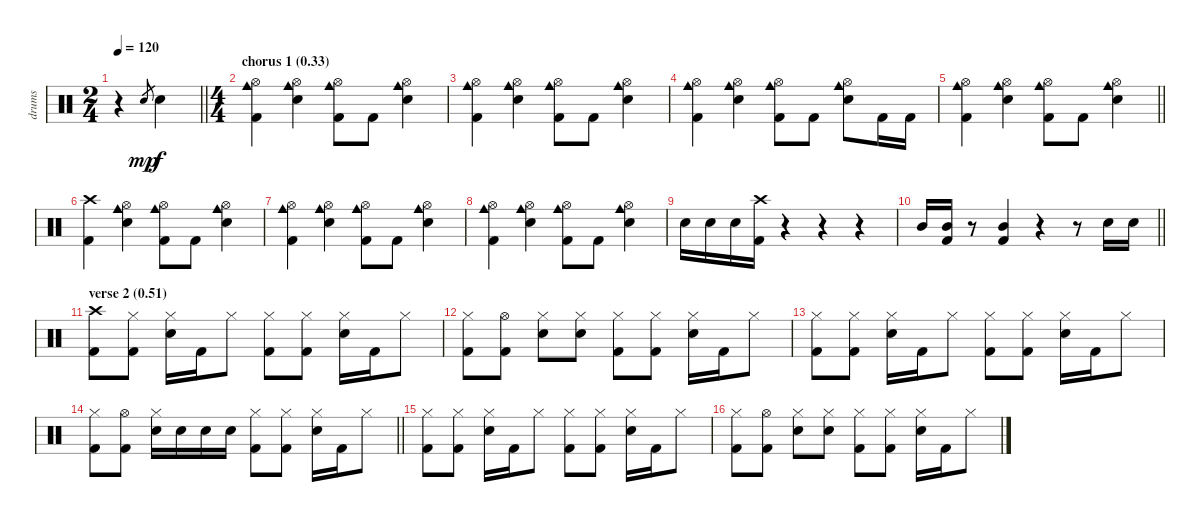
\track ("drums" "drums") {instrument percussion}
\staff {score}
\articulation defaults
\ts (2 4)
\tempo 120
\clef neutral
\barLineRight lightlight
\ks c
r.4{dy f} "Electric Snare (hit)".8{gr dy mp} "Electric Snare (hit)".4{dy f} |
\ts (4 4)
\section ("" "chorus 1 (0.33)")
("Hi-Hat (open)" "Cowbell medium (hit)" "Kick (hit) 2").4 ("Hi-Hat (open)" "Cowbell medium (hit)" "Electric Snare (hit)").4 ("Hi-Hat (open)" "Cowbell medium (hit)" "Kick (hit) 2").8 "Kick (hit) 2".8 ("Hi-Hat (open)" "Cowbell medium (hit)" "Electric Snare (hit)").4 |
("Hi-Hat (open)" "Cowbell medium (hit)" "Kick (hit) 2").4 ("Hi-Hat (open)" "Cowbell medium (hit)" "Electric Snare (hit)").4 ("Hi-Hat (open)" "Cowbell medium (hit)" "Kick (hit) 2").8 "Kick (hit) 2".8 ("Hi-Hat (open)" "Cowbell medium (hit)" "Electric Snare (hit)").4 |
("Hi-Hat (open)" "Cowbell medium (hit)" "Kick (hit) 2").4 ("Hi-Hat (open)" "Cowbell medium (hit)" "Electric Snare (hit)").4 ("Hi-Hat (open)" "Cowbell medium (hit)" "Kick (hit) 2").8 "Kick (hit) 2".8 ("Hi-Hat (open)" "Cowbell medium (hit)" "Electric Snare (hit)").8 "Kick (hit) 2".16 "Kick (hit) 2".16 |
\barLineRight lightlight
("Hi-Hat (open)" "Cowbell medium (hit)" "Kick (hit) 2").4 ("Hi-Hat (open)" "Cowbell medium (hit)" "Electric Snare (hit)").4 ("Hi-Hat (open)" "Cowbell medium (hit)" "Kick (hit) 2").8 "Kick (hit) 2".8 ("Hi-Hat (open)" "Cowbell medium (hit)" "Electric Snare (hit)").4 |
("Crash high (hit)" "Kick (hit) 2").4 ("Hi-Hat (open)" "Cowbell medium (hit)" "Electric Snare (hit)").4 ("Hi-Hat (open)" "Cowbell medium (hit)" "Kick (hit) 2").8 "Kick (hit) 2".8 ("Hi-Hat (open)" "Cowbell medium (hit)" "Electric Snare (hit)").4 |
("Hi-Hat (open)" "Cowbell medium (hit)" "Kick (hit) 2").4 ("Hi-Hat (open)" "Cowbell medium (hit)" "Electric Snare (hit)").4 ("Hi-Hat (open)" "Cowbell medium (hit)" "Kick (hit) 2").8 "Kick (hit) 2".8 ("Hi-Hat (open)" "Cowbell medium (hit)" "Electric Snare (hit)").4 |
("Hi-Hat (open)" "Cowbell medium (hit)" "Kick (hit) 2").4 ("Hi-Hat (open)" "Cowbell medium (hit)" "Electric Snare (hit)").4 ("Hi-Hat (open)" "Cowbell medium (hit)" "Kick (hit) 2").8 "Kick (hit) 2".8 ("Hi-Hat (open)" "Cowbell medium (hit)" "Electric Snare (hit)").4 |
"Electric Snare (hit)".16 "Electric Snare (hit)".16 "Electric Snare (hit)".16 ("Crash high (hit)" "Kick (hit) 2").16 r.4 r.4 r.4 |
\barLineRight lightlight "Mid Tom (hit)".16
("Mid Tom (hit)" "Kick (hit) 2").16 r.8 ("Mid Tom (hit)" "Kick (hit) 2").4 r.4 r.8 "Electric Snare (hit)".16 "Electric Snare (hit)".16 |
\section ("" "verse 2 (0.51)")
("Crash high (hit)" "Kick (hit) 2").8 ("Hi-Hat (closed)" "Kick (hit) 2").8 ("Hi-Hat (closed)" "Electric Snare (hit)").16 "Kick (hit) 2".16 "Hi-Hat (closed)".8 ("Hi-Hat (closed)" "Kick (hit) 2").8 ("Hi-Hat (closed)" "Kick (hit) 2").8 ("Hi-Hat (closed)" "Electric Snare (hit)").16 "Kick (hit) 2".16 "Hi-Hat (closed)".8 |
("Hi-Hat (closed)" "Kick (hit) 2").8 ("Hi-Hat (open)" "Kick (hit) 2").8 ("Hi-Hat (closed)" "Electric Snare (hit)").8 ("Hi-Hat (closed)" "Electric Snare (hit)").8 ("Hi-Hat (closed)" "Kick (hit) 2").8 ("Hi-Hat (closed)" "Kick (hit) 2").8 ("Hi-Hat (closed)" "Electric Snare (hit)").16 "Kick (hit) 2".16 "Hi-Hat (closed)".8 |
("Hi-Hat (closed)" "Kick (hit) 2").8 ("Hi-Hat (closed)" "Kick (hit) 2").8 ("Hi-Hat (closed)" "Electric Snare (hit)").16 "Kick (hit) 2".16 "Hi-Hat (closed)".8 ("Hi-Hat (closed)" "Kick (hit) 2").8 ("Hi-Hat (closed)" "Kick (hit) 2").8 ("Hi-Hat (closed)" "Electric Snare (hit)").16 "Kick (hit) 2".16 "Hi-Hat (closed)".8 |
\barLineRight lightlight
("Hi-Hat (closed)" "Kick (hit) 2").8 ("Hi-Hat (open)" "Kick (hit) 2").8 ("Hi-Hat (closed)" "Electric Snare (hit)").16 "Electric Snare (hit)".16 "Electric Snare (hit)".16 "Electric Snare (hit)".16 ("Hi-Hat (closed)" "Kick (hit) 2").8 ("Hi-Hat (closed)" "Kick (hit) 2").8 ("Hi-Hat (closed)" "Electric Snare (hit)").16 "Kick (hit) 2".16 "Hi-Hat (closed)".8 |
("Hi-Hat (closed)" "Kick (hit) 2").8 ("Hi-Hat (closed)" "Kick (hit) 2").8 ("Hi-Hat (closed)" "Electric Snare (hit)").16 "Kick (hit) 2".16 "Hi-Hat (closed)".8 ("Hi-Hat (closed)" "Kick (hit) 2").8 ("Hi-Hat (closed)" "Kick (hit) 2").8 ("Hi-Hat (closed)" "Electric Snare (hit)").16 "Kick (hit) 2".16 "Hi-Hat (closed)".8 |
("Hi-Hat (closed)" "Kick (hit) 2").8 ("Hi-Hat (open)" "Kick (hit) 2").8 ("Hi-Hat (closed)" "Electric Snare (hit)").8 ("Hi-Hat (closed)" "Electric Snare (hit)").8 ("Hi-Hat (closed)" "Kick (hit) 2").8 ("Hi-Hat (closed)" "Kick (hit) 2").8 ("Hi-Hat (closed)" "Electric Snare (hit)").16 "Kick (hit) 2".16 "Hi-Hat (closed)".8
